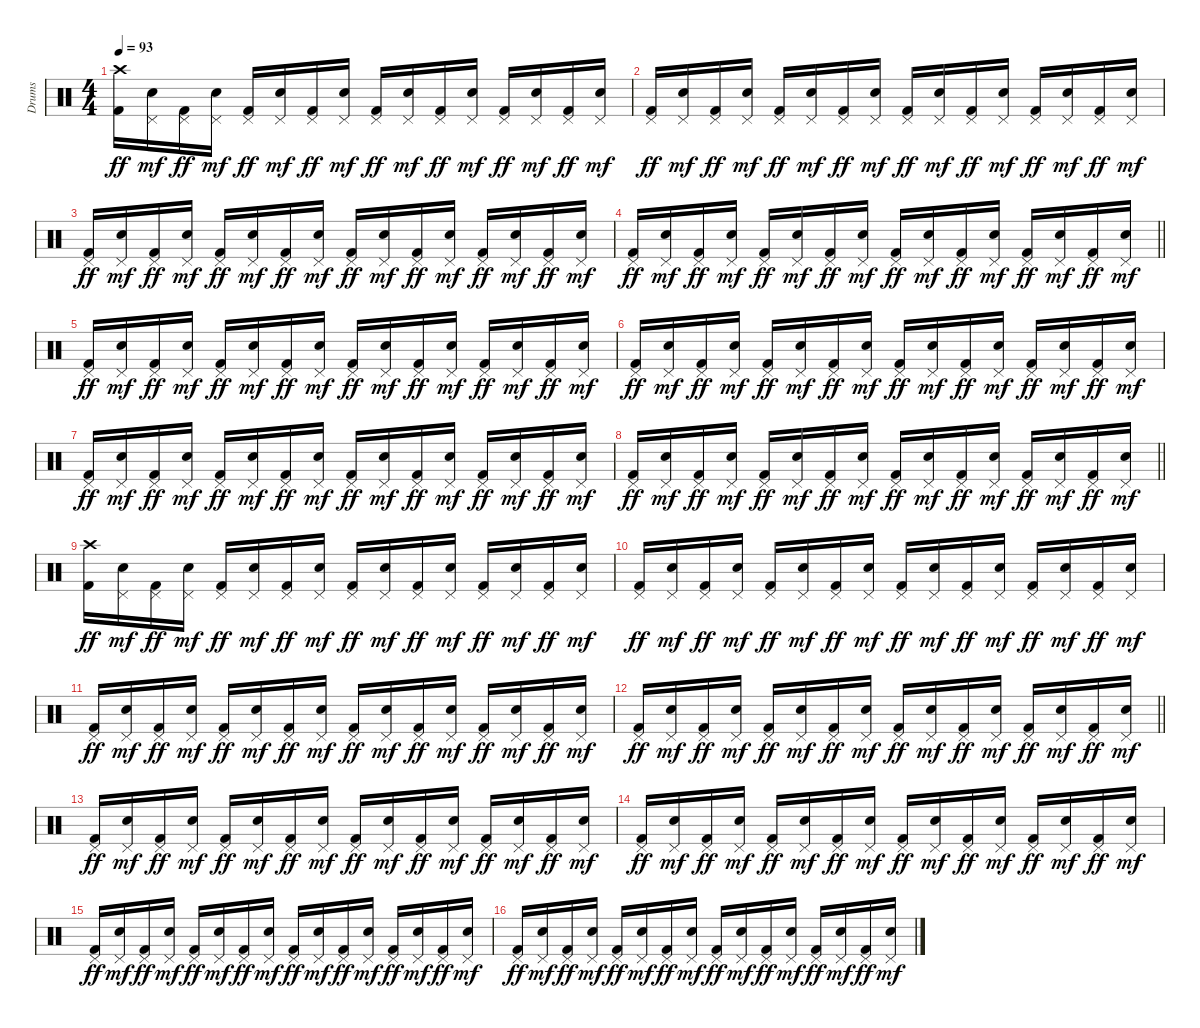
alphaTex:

\track ("Drums" "Drums") {instrument percussion}
\staff {score}
\articulation defaults
\ts (4 4)
\tempo 93
\clef neutral
\ks c
("Crash high (hit)" "Kick (hit) 2").16{dy ff} ("Pedal Hi-Hat (hit)" "Electric Snare (hit)").16{dy mf} ("Pedal Hi-Hat (hit)" "Kick (hit) 2").16{dy ff} ("Pedal Hi-Hat (hit)" "Electric Snare (hit)").16{dy mf} ("Pedal Hi-Hat (hit)" "Kick (hit) 2").16{dy ff} ("Pedal Hi-Hat (hit)" "Electric Snare (hit)").16{dy mf} ("Pedal Hi-Hat (hit)" "Kick (hit) 2").16{dy ff} ("Pedal Hi-Hat (hit)" "Electric Snare (hit)").16{dy mf} ("Pedal Hi-Hat (hit)" "Kick (hit) 2").16{dy ff} ("Pedal Hi-Hat (hit)" "Electric Snare (hit)").16{dy mf} ("Pedal Hi-Hat (hit)" "Kick (hit) 2").16{dy ff} ("Pedal Hi-Hat (hit)" "Electric Snare (hit)").16{dy mf} ("Pedal Hi-Hat (hit)" "Kick (hit) 2").16{dy ff} ("Pedal Hi-Hat (hit)" "Electric Snare (hit)").16{dy mf} ("Pedal Hi-Hat (hit)" "Kick (hit) 2").16{dy ff} ("Pedal Hi-Hat (hit)" "Electric Snare (hit)").16{dy mf} |
("Pedal Hi-Hat (hit)" "Kick (hit) 2").16{dy ff} ("Pedal Hi-Hat (hit)" "Electric Snare (hit)").16{dy mf} ("Pedal Hi-Hat (hit)" "Kick (hit) 2").16{dy ff} ("Pedal Hi-Hat (hit)" "Electric Snare (hit)").16{dy mf} ("Pedal Hi-Hat (hit)" "Kick (hit) 2").16{dy ff} ("Pedal Hi-Hat (hit)" "Electric Snare (hit)").16{dy mf} ("Pedal Hi-Hat (hit)" "Kick (hit) 2").16{dy ff} ("Pedal Hi-Hat (hit)" "Electric Snare (hit)").16{dy mf} ("Pedal Hi-Hat (hit)" "Kick (hit) 2").16{dy ff} ("Pedal Hi-Hat (hit)" "Electric Snare (hit)").16{dy mf} ("Pedal Hi-Hat (hit)" "Kick (hit) 2").16{dy ff} ("Pedal Hi-Hat (hit)" "Electric Snare (hit)").16{dy mf} ("Pedal Hi-Hat (hit)" "Kick (hit) 2").16{dy ff} ("Pedal Hi-Hat (hit)" "Electric Snare (hit)").16{dy mf} ("Pedal Hi-Hat (hit)" "Kick (hit) 2").16{dy ff} ("Pedal Hi-Hat (hit)" "Electric Snare (hit)").16{dy mf} |
("Pedal Hi-Hat (hit)" "Kick (hit) 2").16{dy ff} ("Pedal Hi-Hat (hit)" "Electric Snare (hit)").16{dy mf} ("Pedal Hi-Hat (hit)" "Kick (hit) 2").16{dy ff} ("Pedal Hi-Hat (hit)" "Electric Snare (hit)").16{dy mf} ("Pedal Hi-Hat (hit)" "Kick (hit) 2").16{dy ff} ("Pedal Hi-Hat (hit)" "Electric Snare (hit)").16{dy mf} ("Pedal Hi-Hat (hit)" "Kick (hit) 2").16{dy ff} ("Pedal Hi-Hat (hit)" "Electric Snare (hit)").16{dy mf} ("Pedal Hi-Hat (hit)" "Kick (hit) 2").16{dy ff} ("Pedal Hi-Hat (hit)" "Electric Snare (hit)").16{dy mf} ("Pedal Hi-Hat (hit)" "Kick (hit) 2").16{dy ff} ("Pedal Hi-Hat (hit)" "Electric Snare (hit)").16{dy mf} ("Pedal Hi-Hat (hit)" "Kick (hit) 2").16{dy ff} ("Pedal Hi-Hat (hit)" "Electric Snare (hit)").16{dy mf} ("Pedal Hi-Hat (hit)" "Kick (hit) 2").16{dy ff} ("Pedal Hi-Hat (hit)" "Electric Snare (hit)").16{dy mf} |
\barLineRight lightlight
("Pedal Hi-Hat (hit)" "Kick (hit) 2").16{dy ff} ("Pedal Hi-Hat (hit)" "Electric Snare (hit)").16{dy mf} ("Pedal Hi-Hat (hit)" "Kick (hit) 2").16{dy ff} ("Pedal Hi-Hat (hit)" "Electric Snare (hit)").16{dy mf} ("Pedal Hi-Hat (hit)" "Kick (hit) 2").16{dy ff} ("Pedal Hi-Hat (hit)" "Electric Snare (hit)").16{dy mf} ("Pedal Hi-Hat (hit)" "Kick (hit) 2").16{dy ff} ("Pedal Hi-Hat (hit)" "Electric Snare (hit)").16{dy mf} ("Pedal Hi-Hat (hit)" "Kick (hit) 2").16{dy ff} ("Pedal Hi-Hat (hit)" "Electric Snare (hit)").16{dy mf} ("Pedal Hi-Hat (hit)" "Kick (hit) 2").16{dy ff} ("Pedal Hi-Hat (hit)" "Electric Snare (hit)").16{dy mf} ("Pedal Hi-Hat (hit)" "Kick (hit) 2").16{dy ff} ("Pedal Hi-Hat (hit)" "Electric Snare (hit)").16{dy mf} ("Pedal Hi-Hat (hit)" "Kick (hit) 2").16{dy ff} ("Pedal Hi-Hat (hit)" "Electric Snare (hit)").16{dy mf} |
("Pedal Hi-Hat (hit)" "Kick (hit) 2").16{dy ff} ("Pedal Hi-Hat (hit)" "Electric Snare (hit)").16{dy mf} ("Pedal Hi-Hat (hit)" "Kick (hit) 2").16{dy ff} ("Pedal Hi-Hat (hit)" "Electric Snare (hit)").16{dy mf} ("Pedal Hi-Hat (hit)" "Kick (hit) 2").16{dy ff} ("Pedal Hi-Hat (hit)" "Electric Snare (hit)").16{dy mf} ("Pedal Hi-Hat (hit)" "Kick (hit) 2").16{dy ff} ("Pedal Hi-Hat (hit)" "Electric Snare (hit)").16{dy mf} ("Pedal Hi-Hat (hit)" "Kick (hit) 2").16{dy ff} ("Pedal Hi-Hat (hit)" "Electric Snare (hit)").16{dy mf} ("Pedal Hi-Hat (hit)" "Kick (hit) 2").16{dy ff} ("Pedal Hi-Hat (hit)" "Electric Snare (hit)").16{dy mf} ("Pedal Hi-Hat (hit)" "Kick (hit) 2").16{dy ff} ("Pedal Hi-Hat (hit)" "Electric Snare (hit)").16{dy mf} ("Pedal Hi-Hat (hit)" "Kick (hit) 2").16{dy ff} ("Pedal Hi-Hat (hit)" "Electric Snare (hit)").16{dy mf} |
("Pedal Hi-Hat (hit)" "Kick (hit) 2").16{dy ff} ("Pedal Hi-Hat (hit)" "Electric Snare (hit)").16{dy mf} ("Pedal Hi-Hat (hit)" "Kick (hit) 2").16{dy ff} ("Pedal Hi-Hat (hit)" "Electric Snare (hit)").16{dy mf} ("Pedal Hi-Hat (hit)" "Kick (hit) 2").16{dy ff} ("Pedal Hi-Hat (hit)" "Electric Snare (hit)").16{dy mf} ("Pedal Hi-Hat (hit)" "Kick (hit) 2").16{dy ff} ("Pedal Hi-Hat (hit)" "Electric Snare (hit)").16{dy mf} ("Pedal Hi-Hat (hit)" "Kick (hit) 2").16{dy ff} ("Pedal Hi-Hat (hit)" "Electric Snare (hit)").16{dy mf} ("Pedal Hi-Hat (hit)" "Kick (hit) 2").16{dy ff} ("Pedal Hi-Hat (hit)" "Electric Snare (hit)").16{dy mf} ("Pedal Hi-Hat (hit)" "Kick (hit) 2").16{dy ff} ("Pedal Hi-Hat (hit)" "Electric Snare (hit)").16{dy mf} ("Pedal Hi-Hat (hit)" "Kick (hit) 2").16{dy ff} ("Pedal Hi-Hat (hit)" "Electric Snare (hit)").16{dy mf} |
("Pedal Hi-Hat (hit)" "Kick (hit) 2").16{dy ff} ("Pedal Hi-Hat (hit)" "Electric Snare (hit)").16{dy mf} ("Pedal Hi-Hat (hit)" "Kick (hit) 2").16{dy ff} ("Pedal Hi-Hat (hit)" "Electric Snare (hit)").16{dy mf} ("Pedal Hi-Hat (hit)" "Kick (hit) 2").16{dy ff} ("Pedal Hi-Hat (hit)" "Electric Snare (hit)").16{dy mf} ("Pedal Hi-Hat (hit)" "Kick (hit) 2").16{dy ff} ("Pedal Hi-Hat (hit)" "Electric Snare (hit)").16{dy mf} ("Pedal Hi-Hat (hit)" "Kick (hit) 2").16{dy ff} ("Pedal Hi-Hat (hit)" "Electric Snare (hit)").16{dy mf} ("Pedal Hi-Hat (hit)" "Kick (hit) 2").16{dy ff} ("Pedal Hi-Hat (hit)" "Electric Snare (hit)").16{dy mf} ("Pedal Hi-Hat (hit)" "Kick (hit) 2").16{dy ff} ("Pedal Hi-Hat (hit)" "Electric Snare (hit)").16{dy mf} ("Pedal Hi-Hat (hit)" "Kick (hit) 2").16{dy ff} ("Pedal Hi-Hat (hit)" "Electric Snare (hit)").16{dy mf} |
\barLineRight lightlight
("Pedal Hi-Hat (hit)" "Kick (hit) 2").16{dy ff} ("Pedal Hi-Hat (hit)" "Electric Snare (hit)").16{dy mf} ("Pedal Hi-Hat (hit)" "Kick (hit) 2").16{dy ff} ("Pedal Hi-Hat (hit)" "Electric Snare (hit)").16{dy mf} ("Pedal Hi-Hat (hit)" "Kick (hit) 2").16{dy ff} ("Pedal Hi-Hat (hit)" "Electric Snare (hit)").16{dy mf} ("Pedal Hi-Hat (hit)" "Kick (hit) 2").16{dy ff} ("Pedal Hi-Hat (hit)" "Electric Snare (hit)").16{dy mf} ("Pedal Hi-Hat (hit)" "Kick (hit) 2").16{dy ff} ("Pedal Hi-Hat (hit)" "Electric Snare (hit)").16{dy mf} ("Pedal Hi-Hat (hit)" "Kick (hit) 2").16{dy ff} ("Pedal Hi-Hat (hit)" "Electric Snare (hit)").16{dy mf} ("Pedal Hi-Hat (hit)" "Kick (hit) 2").16{dy ff} ("Pedal Hi-Hat (hit)" "Electric Snare (hit)").16{dy mf} ("Pedal Hi-Hat (hit)" "Kick (hit) 2").16{dy ff} ("Pedal Hi-Hat (hit)" "Electric Snare (hit)").16{dy mf} |
("Crash high (hit)" "Kick (hit) 2").16{dy ff} ("Pedal Hi-Hat (hit)" "Electric Snare (hit)").16{dy mf} ("Pedal Hi-Hat (hit)" "Kick (hit) 2").16{dy ff} ("Pedal Hi-Hat (hit)" "Electric Snare (hit)").16{dy mf} ("Pedal Hi-Hat (hit)" "Kick (hit) 2").16{dy ff} ("Pedal Hi-Hat (hit)" "Electric Snare (hit)").16{dy mf} ("Pedal Hi-Hat (hit)" "Kick (hit) 2").16{dy ff} ("Pedal Hi-Hat (hit)" "Electric Snare (hit)").16{dy mf} ("Pedal Hi-Hat (hit)" "Kick (hit) 2").16{dy ff} ("Pedal Hi-Hat (hit)" "Electric Snare (hit)").16{dy mf} ("Pedal Hi-Hat (hit)" "Kick (hit) 2").16{dy ff} ("Pedal Hi-Hat (hit)" "Electric Snare (hit)").16{dy mf} ("Pedal Hi-Hat (hit)" "Kick (hit) 2").16{dy ff} ("Pedal Hi-Hat (hit)" "Electric Snare (hit)").16{dy mf} ("Pedal Hi-Hat (hit)" "Kick (hit) 2").16{dy ff} ("Pedal Hi-Hat (hit)" "Electric Snare (hit)").16{dy mf} |
("Pedal Hi-Hat (hit)" "Kick (hit) 2").16{dy ff} ("Pedal Hi-Hat (hit)" "Electric Snare (hit)").16{dy mf} ("Pedal Hi-Hat (hit)" "Kick (hit) 2").16{dy ff} ("Pedal Hi-Hat (hit)" "Electric Snare (hit)").16{dy mf} ("Pedal Hi-Hat (hit)" "Kick (hit) 2").16{dy ff} ("Pedal Hi-Hat (hit)" "Electric Snare (hit)").16{dy mf} ("Pedal Hi-Hat (hit)" "Kick (hit) 2").16{dy ff} ("Pedal Hi-Hat (hit)" "Electric Snare (hit)").16{dy mf} ("Pedal Hi-Hat (hit)" "Kick (hit) 2").16{dy ff} ("Pedal Hi-Hat (hit)" "Electric Snare (hit)").16{dy mf} ("Pedal Hi-Hat (hit)" "Kick (hit) 2").16{dy ff} ("Pedal Hi-Hat (hit)" "Electric Snare (hit)").16{dy mf} ("Pedal Hi-Hat (hit)" "Kick (hit) 2").16{dy ff} ("Pedal Hi-Hat (hit)" "Electric Snare (hit)").16{dy mf} ("Pedal Hi-Hat (hit)" "Kick (hit) 2").16{dy ff} ("Pedal Hi-Hat (hit)" "Electric Snare (hit)").16{dy mf} |
("Pedal Hi-Hat (hit)" "Kick (hit) 2").16{dy ff} ("Pedal Hi-Hat (hit)" "Electric Snare (hit)").16{dy mf} ("Pedal Hi-Hat (hit)" "Kick (hit) 2").16{dy ff} ("Pedal Hi-Hat (hit)" "Electric Snare (hit)").16{dy mf} ("Pedal Hi-Hat (hit)" "Kick (hit) 2").16{dy ff} ("Pedal Hi-Hat (hit)" "Electric Snare (hit)").16{dy mf} ("Pedal Hi-Hat (hit)" "Kick (hit) 2").16{dy ff} ("Pedal Hi-Hat (hit)" "Electric Snare (hit)").16{dy mf} ("Pedal Hi-Hat (hit)" "Kick (hit) 2").16{dy ff} ("Pedal Hi-Hat (hit)" "Electric Snare (hit)").16{dy mf} ("Pedal Hi-Hat (hit)" "Kick (hit) 2").16{dy ff} ("Pedal Hi-Hat (hit)" "Electric Snare (hit)").16{dy mf} ("Pedal Hi-Hat (hit)" "Kick (hit) 2").16{dy ff} ("Pedal Hi-Hat (hit)" "Electric Snare (hit)").16{dy mf} ("Pedal Hi-Hat (hit)" "Kick (hit) 2").16{dy ff} ("Pedal Hi-Hat (hit)" "Electric Snare (hit)").16{dy mf} |
\barLineRight lightlight
("Pedal Hi-Hat (hit)" "Kick (hit) 2").16{dy ff} ("Pedal Hi-Hat (hit)" "Electric Snare (hit)").16{dy mf} ("Pedal Hi-Hat (hit)" "Kick (hit) 2").16{dy ff} ("Pedal Hi-Hat (hit)" "Electric Snare (hit)").16{dy mf} ("Pedal Hi-Hat (hit)" "Kick (hit) 2").16{dy ff} ("Pedal Hi-Hat (hit)" "Electric Snare (hit)").16{dy mf} ("Pedal Hi-Hat (hit)" "Kick (hit) 2").16{dy ff} ("Pedal Hi-Hat (hit)" "Electric Snare (hit)").16{dy mf} ("Pedal Hi-Hat (hit)" "Kick (hit) 2").16{dy ff} ("Pedal Hi-Hat (hit)" "Electric Snare (hit)").16{dy mf} ("Pedal Hi-Hat (hit)" "Kick (hit) 2").16{dy ff} ("Pedal Hi-Hat (hit)" "Electric Snare (hit)").16{dy mf} ("Pedal Hi-Hat (hit)" "Kick (hit) 2").16{dy ff} ("Pedal Hi-Hat (hit)" "Electric Snare (hit)").16{dy mf} ("Pedal Hi-Hat (hit)" "Kick (hit) 2").16{dy ff} ("Pedal Hi-Hat (hit)" "Electric Snare (hit)").16{dy mf} |
("Pedal Hi-Hat (hit)" "Kick (hit) 2").16{dy ff} ("Pedal Hi-Hat (hit)" "Electric Snare (hit)").16{dy mf} ("Pedal Hi-Hat (hit)" "Kick (hit) 2").16{dy ff} ("Pedal Hi-Hat (hit)" "Electric Snare (hit)").16{dy mf} ("Pedal Hi-Hat (hit)" "Kick (hit) 2").16{dy ff} ("Pedal Hi-Hat (hit)" "Electric Snare (hit)").16{dy mf} ("Pedal Hi-Hat (hit)" "Kick (hit) 2").16{dy ff} ("Pedal Hi-Hat (hit)" "Electric Snare (hit)").16{dy mf} ("Pedal Hi-Hat (hit)" "Kick (hit) 2").16{dy ff} ("Pedal Hi-Hat (hit)" "Electric Snare (hit)").16{dy mf} ("Pedal Hi-Hat (hit)" "Kick (hit) 2").16{dy ff} ("Pedal Hi-Hat (hit)" "Electric Snare (hit)").16{dy mf} ("Pedal Hi-Hat (hit)" "Kick (hit) 2").16{dy ff} ("Pedal Hi-Hat (hit)" "Electric Snare (hit)").16{dy mf} ("Pedal Hi-Hat (hit)" "Kick (hit) 2").16{dy ff} ("Pedal Hi-Hat (hit)" "Electric Snare (hit)").16{dy mf} |
("Pedal Hi-Hat (hit)" "Kick (hit) 2").16{dy ff} ("Pedal Hi-Hat (hit)" "Electric Snare (hit)").16{dy mf} ("Pedal Hi-Hat (hit)" "Kick (hit) 2").16{dy ff} ("Pedal Hi-Hat (hit)" "Electric Snare (hit)").16{dy mf} ("Pedal Hi-Hat (hit)" "Kick (hit) 2").16{dy ff} ("Pedal Hi-Hat (hit)" "Electric Snare (hit)").16{dy mf} ("Pedal Hi-Hat (hit)" "Kick (hit) 2").16{dy ff} ("Pedal Hi-Hat (hit)" "Electric Snare (hit)").16{dy mf} ("Pedal Hi-Hat (hit)" "Kick (hit) 2").16{dy ff} ("Pedal Hi-Hat (hit)" "Electric Snare (hit)").16{dy mf} ("Pedal Hi-Hat (hit)" "Kick (hit) 2").16{dy ff} ("Pedal Hi-Hat (hit)" "Electric Snare (hit)").16{dy mf} ("Pedal Hi-Hat (hit)" "Kick (hit) 2").16{dy ff} ("Pedal Hi-Hat (hit)" "Electric Snare (hit)").16{dy mf} ("Pedal Hi-Hat (hit)" "Kick (hit) 2").16{dy ff} ("Pedal Hi-Hat (hit)" "Electric Snare (hit)").16{dy mf} |
("Pedal Hi-Hat (hit)" "Kick (hit) 2").16{dy ff} ("Pedal Hi-Hat (hit)" "Electric Snare (hit)").16{dy mf} ("Pedal Hi-Hat (hit)" "Kick (hit) 2").16{dy ff} ("Pedal Hi-Hat (hit)" "Electric Snare (hit)").16{dy mf} ("Pedal Hi-Hat (hit)" "Kick (hit) 2").16{dy ff} ("Pedal Hi-Hat (hit)" "Electric Snare (hit)").16{dy mf} ("Pedal Hi-Hat (hit)" "Kick (hit) 2").16{dy ff} ("Pedal Hi-Hat (hit)" "Electric Snare (hit)").16{dy mf} ("Pedal Hi-Hat (hit)" "Kick (hit) 2").16{dy ff} ("Pedal Hi-Hat (hit)" "Electric Snare (hit)").16{dy mf} ("Pedal Hi-Hat (hit)" "Kick (hit) 2").16{dy ff} ("Pedal Hi-Hat (hit)" "Electric Snare (hit)").16{dy mf} ("Pedal Hi-Hat (hit)" "Kick (hit) 2").16{dy ff} ("Pedal Hi-Hat (hit)" "Electric Snare (hit)").16{dy mf} ("Pedal Hi-Hat (hit)" "Kick (hit) 2").16{dy ff} ("Pedal Hi-Hat (hit)" "Electric Snare (hit)").16{dy mf} |
("Pedal Hi-Hat (hit)" "Kick (hit) 2").16{dy ff} ("Pedal Hi-Hat (hit)" "Electric Snare (hit)").16{dy mf} ("Pedal Hi-Hat (hit)" "Kick (hit) 2").16{dy ff} ("Pedal Hi-Hat (hit)" "Electric Snare (hit)").16{dy mf} ("Pedal Hi-Hat (hit)" "Kick (hit) 2").16{dy ff} ("Pedal Hi-Hat (hit)" "Electric Snare (hit)").16{dy mf} ("Pedal Hi-Hat (hit)" "Kick (hit) 2").16{dy ff} ("Pedal Hi-Hat (hit)" "Electric Snare (hit)").16{dy mf} ("Pedal Hi-Hat (hit)" "Kick (hit) 2").16{dy ff} ("Pedal Hi-Hat (hit)" "Electric Snare (hit)").16{dy mf} ("Pedal Hi-Hat (hit)" "Kick (hit) 2").16{dy ff} ("Pedal Hi-Hat (hit)" "Electric Snare (hit)").16{dy mf} ("Pedal Hi-Hat (hit)" "Kick (hit) 2").16{dy ff} ("Pedal Hi-Hat (hit)" "Electric Snare (hit)").16{dy mf} ("Pedal Hi-Hat (hit)" "Kick (hit) 2").16{dy ff} ("Pedal Hi-Hat (hit)" "Electric Snare (hit)").16{dy mf}
